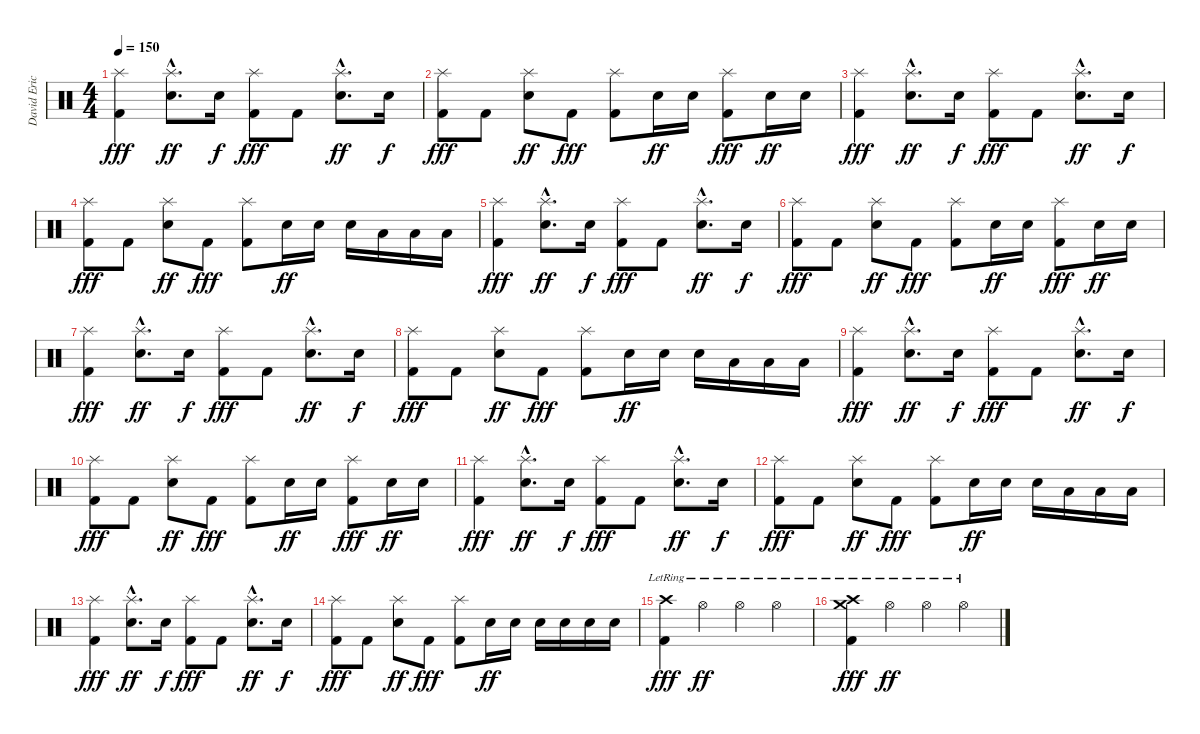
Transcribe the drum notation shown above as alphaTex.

\track ("David Eric Grohl" "David Eric") {instrument percussion}
\staff {score}
\articulation defaults
\ts (4 4)
\tempo 150
\clef neutral
\ks c
("Splash (hit)" "Kick (hit) 2").4{dy fff} ("Splash (hit)"{hac} "Electric Snare (hit)"{hac}).8{d dy ff} "Electric Snare (hit)".16{dy f} ("Splash (hit)" "Kick (hit) 2").8{dy fff} "Kick (hit) 2".8 ("Splash (hit)"{hac} "Electric Snare (hit)"{hac}).8{d dy ff} "Electric Snare (hit)".16{dy f} |
("Splash (hit)" "Kick (hit) 2").8{dy fff} "Kick (hit) 2".8 ("Splash (hit)" "Electric Snare (hit)").8{dy ff} "Kick (hit) 2".8{dy fff} ("Splash (hit)" "Kick (hit) 2").8 "Electric Snare (hit)".16{dy ff} "Electric Snare (hit)".16 ("Splash (hit)" "Kick (hit) 2").8{dy fff} "Electric Snare (hit)".16{dy ff} "Electric Snare (hit)".16 |
("Splash (hit)" "Kick (hit) 2").4{dy fff} ("Splash (hit)"{hac} "Electric Snare (hit)"{hac}).8{d dy ff} "Electric Snare (hit)".16{dy f} ("Splash (hit)" "Kick (hit) 2").8{dy fff} "Kick (hit) 2".8 ("Splash (hit)"{hac} "Electric Snare (hit)"{hac}).8{d dy ff} "Electric Snare (hit)".16{dy f} |
("Splash (hit)" "Kick (hit) 2").8{dy fff} "Kick (hit) 2".8 ("Splash (hit)" "Electric Snare (hit)").8{dy ff} "Kick (hit) 2".8{dy fff} ("Splash (hit)" "Kick (hit) 2").8 "Electric Snare (hit)".16{dy ff} "Electric Snare (hit)".16 "Electric Snare (hit)".16 "Low Tom (hit)".16 "Low Tom (hit)".16 "Low Tom (hit)".16 |
("Splash (hit)" "Kick (hit) 2").4{dy fff} ("Splash (hit)"{hac} "Electric Snare (hit)"{hac}).8{d dy ff} "Electric Snare (hit)".16{dy f} ("Splash (hit)" "Kick (hit) 2").8{dy fff} "Kick (hit) 2".8 ("Splash (hit)"{hac} "Electric Snare (hit)"{hac}).8{d dy ff} "Electric Snare (hit)".16{dy f} |
("Splash (hit)" "Kick (hit) 2").8{dy fff} "Kick (hit) 2".8 ("Splash (hit)" "Electric Snare (hit)").8{dy ff} "Kick (hit) 2".8{dy fff} ("Splash (hit)" "Kick (hit) 2").8 "Electric Snare (hit)".16{dy ff} "Electric Snare (hit)".16 ("Splash (hit)" "Kick (hit) 2").8{dy fff} "Electric Snare (hit)".16{dy ff} "Electric Snare (hit)".16 |
("Splash (hit)" "Kick (hit) 2").4{dy fff} ("Splash (hit)"{hac} "Electric Snare (hit)"{hac}).8{d dy ff} "Electric Snare (hit)".16{dy f} ("Splash (hit)" "Kick (hit) 2").8{dy fff} "Kick (hit) 2".8 ("Splash (hit)"{hac} "Electric Snare (hit)"{hac}).8{d dy ff} "Electric Snare (hit)".16{dy f} |
("Splash (hit)" "Kick (hit) 2").8{dy fff} "Kick (hit) 2".8 ("Splash (hit)" "Electric Snare (hit)").8{dy ff} "Kick (hit) 2".8{dy fff} ("Splash (hit)" "Kick (hit) 2").8 "Electric Snare (hit)".16{dy ff} "Electric Snare (hit)".16 "Electric Snare (hit)".16 "Low Tom (hit)".16 "Low Tom (hit)".16 "Low Tom (hit)".16 |
("Splash (hit)" "Kick (hit) 2").4{dy fff} ("Splash (hit)"{hac} "Electric Snare (hit)"{hac}).8{d dy ff} "Electric Snare (hit)".16{dy f} ("Splash (hit)" "Kick (hit) 2").8{dy fff} "Kick (hit) 2".8 ("Splash (hit)"{hac} "Electric Snare (hit)"{hac}).8{d dy ff} "Electric Snare (hit)".16{dy f} |
("Splash (hit)" "Kick (hit) 2").8{dy fff} "Kick (hit) 2".8 ("Splash (hit)" "Electric Snare (hit)").8{dy ff} "Kick (hit) 2".8{dy fff} ("Splash (hit)" "Kick (hit) 2").8 "Electric Snare (hit)".16{dy ff} "Electric Snare (hit)".16 ("Splash (hit)" "Kick (hit) 2").8{dy fff} "Electric Snare (hit)".16{dy ff} "Electric Snare (hit)".16 |
("Splash (hit)" "Kick (hit) 2").4{dy fff} ("Splash (hit)"{hac} "Electric Snare (hit)"{hac}).8{d dy ff} "Electric Snare (hit)".16{dy f} ("Splash (hit)" "Kick (hit) 2").8{dy fff} "Kick (hit) 2".8 ("Splash (hit)"{hac} "Electric Snare (hit)"{hac}).8{d dy ff} "Electric Snare (hit)".16{dy f} |
("Splash (hit)" "Kick (hit) 2").8{dy fff} "Kick (hit) 2".8 ("Splash (hit)" "Electric Snare (hit)").8{dy ff} "Kick (hit) 2".8{dy fff} ("Splash (hit)" "Kick (hit) 2").8 "Electric Snare (hit)".16{dy ff} "Electric Snare (hit)".16 "Electric Snare (hit)".16 "Low Tom (hit)".16 "Low Tom (hit)".16 "Low Tom (hit)".16 |
("Splash (hit)" "Kick (hit) 2").4{dy fff} ("Splash (hit)"{hac} "Electric Snare (hit)"{hac}).8{d dy ff} "Electric Snare (hit)".16{dy f} ("Splash (hit)" "Kick (hit) 2").8{dy fff} "Kick (hit) 2".8 ("Splash (hit)"{hac} "Electric Snare (hit)"{hac}).8{d dy ff} "Electric Snare (hit)".16{dy f} |
("Splash (hit)" "Kick (hit) 2").8{dy fff} "Kick (hit) 2".8 ("Splash (hit)" "Electric Snare (hit)").8{dy ff} "Kick (hit) 2".8{dy fff} ("Splash (hit)" "Kick (hit) 2").8 "Electric Snare (hit)".16{dy ff} "Electric Snare (hit)".16 "Electric Snare (hit)".16 "Electric Snare (hit)".16 "Electric Snare (hit)".16 "Electric Snare (hit)".16 |
("Crash high (hit)"{lr} "Kick (hit) 2").4{dy fff} "Hi-Hat (open)"{lr}.4{dy ff} "Hi-Hat (open)"{lr}.4 "Hi-Hat (open)"{lr}.4 |
("Crash medium (hit)"{lr} "Crash high (hit)"{lr} "Kick (hit) 2").4{dy fff} "Hi-Hat (open)"{lr}.4{dy ff} "Hi-Hat (open)"{lr}.4 "Hi-Hat (open)"{lr}.4
